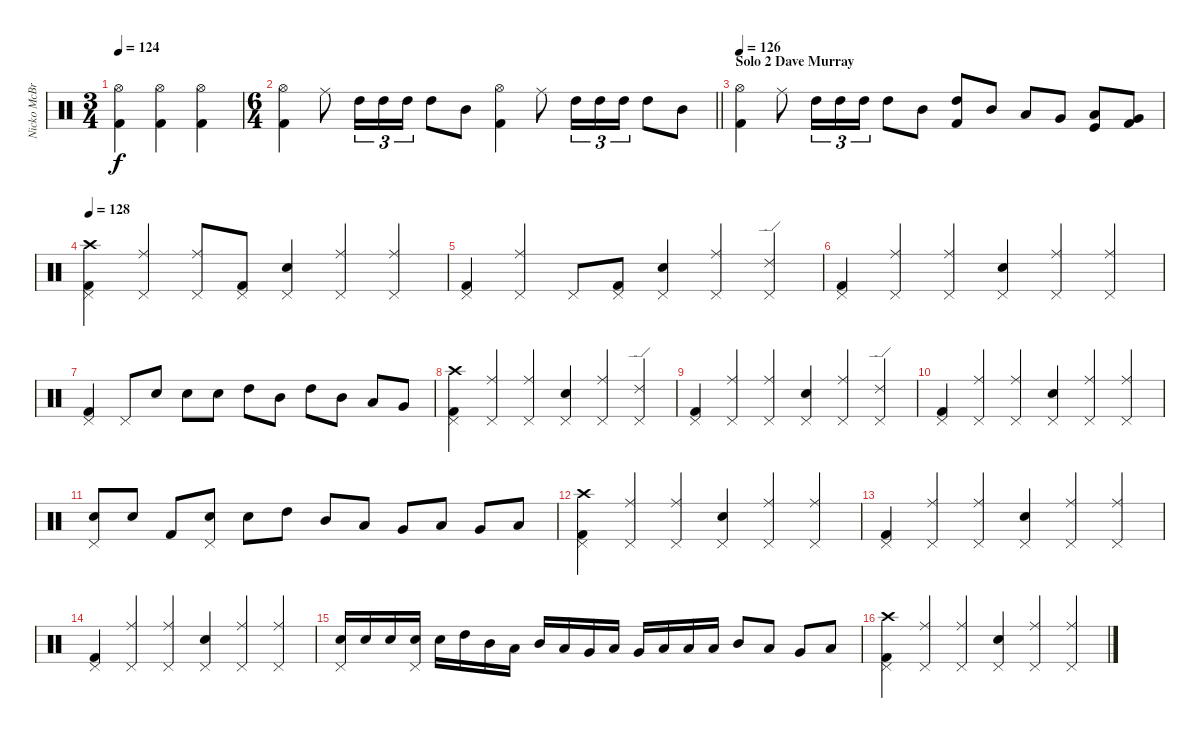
\track ("Nicko McBrain" "Nicko McBr") {instrument percussion}
\staff {score}
\articulation defaults
\ts (3 4)
\tempo 124
\clef neutral
\ks c
("Kick (hit) 2" "Hi-Hat (open)").4{dy f} ("Kick (hit) 2" "Hi-Hat (open)").4 ("Kick (hit) 2" "Hi-Hat (open)").4 |
\ts (6 4)
\barLineRight lightlight
("Kick (hit) 2" "Hi-Hat (open)").4 "Ride (middle)".8 "High Tom (hit)".16{tu (3 2)} "High Tom (hit)".16{tu (3 2)} "High Tom (hit)".16{tu (3 2)} "High Tom (hit)".8 "Mid Tom (hit)".8 ("Kick (hit) 2" "Hi-Hat (open)").4 "Ride (middle)".8 "High Tom (hit)".16{tu (3 2)} "High Tom (hit)".16{tu (3 2)} "High Tom (hit)".16{tu (3 2)} "High Tom (hit)".8 "Mid Tom (hit)".8 |
\section ("" "Solo 2 Dave Murray")
\tempo 126
("Kick (hit) 2" "Hi-Hat (open)").4 "Ride (middle)".8 "High Tom (hit)".16{tu (3 2)} "High Tom (hit)".16{tu (3 2)} "High Tom (hit)".16{tu (3 2)} "High Tom (hit)".8 "Mid Tom (hit)".8 ("High Tom (hit)" "Kick (hit) 2").8 "Mid Tom (hit)".8 "Low Tom (hit)".8 "Very Low Tom (hit)".8 ("Low Floor Tom (hit)" "Kick (hit)").8 ("Very Low Tom (hit)" "Kick (hit) 2").8 |
\tempo 128
("Kick (hit) 2" "Pedal Hi-Hat (hit)" "Crash high (hit)").4 ("Pedal Hi-Hat (hit)" "Ride (middle)").4 ("Pedal Hi-Hat (hit)" "Ride (middle)").8 ("Kick (hit) 2" "Pedal Hi-Hat (hit)").8 ("Snare (hit) 2" "Pedal Hi-Hat (hit)").4 ("Pedal Hi-Hat (hit)" "Ride (middle)").4 ("Pedal Hi-Hat (hit)" "Ride (middle)").4 |
("Kick (hit) 2" "Pedal Hi-Hat (hit)").4 ("Pedal Hi-Hat (hit)" "Ride (middle)").4 "Pedal Hi-Hat (hit)".8 ("Kick (hit) 2" "Pedal Hi-Hat (hit)").8 ("Snare (hit) 2" "Pedal Hi-Hat (hit)").4 ("Pedal Hi-Hat (hit)" "Ride (middle)").4 ("Pedal Hi-Hat (hit)" "Ride (edge) 2").4 |
("Kick (hit) 2" "Pedal Hi-Hat (hit)").4 ("Pedal Hi-Hat (hit)" "Ride (middle)").4 ("Pedal Hi-Hat (hit)" "Ride (middle)").4 ("Snare (hit) 2" "Pedal Hi-Hat (hit)").4 ("Pedal Hi-Hat (hit)" "Ride (middle)").4 ("Pedal Hi-Hat (hit)" "Ride (middle)").4 |
("Kick (hit) 2" "Pedal Hi-Hat (hit)").4 "Pedal Hi-Hat (hit)".8 "Snare (hit) 2".8 "Snare (hit) 2".8 "Snare (hit) 2".8 "High Tom (hit)".8 "Mid Tom (hit)".8 "High Tom (hit)".8 "Mid Tom (hit)".8 "Low Tom (hit)".8 "Very Low Tom (hit)".8 |
("Kick (hit) 2" "Pedal Hi-Hat (hit)" "Crash high (hit)").4 ("Pedal Hi-Hat (hit)" "Ride (middle)").4 ("Pedal Hi-Hat (hit)" "Ride (middle)").4 ("Snare (hit) 2" "Pedal Hi-Hat (hit)").4 ("Pedal Hi-Hat (hit)" "Ride (middle)").4 ("Pedal Hi-Hat (hit)" "Ride (edge) 2").4 |
("Kick (hit) 2" "Pedal Hi-Hat (hit)").4 ("Pedal Hi-Hat (hit)" "Ride (middle)").4 ("Pedal Hi-Hat (hit)" "Ride (middle)").4 ("Snare (hit) 2" "Pedal Hi-Hat (hit)").4 ("Pedal Hi-Hat (hit)" "Ride (middle)").4 ("Pedal Hi-Hat (hit)" "Ride (edge) 2").4 |
("Kick (hit) 2" "Pedal Hi-Hat (hit)").4 ("Pedal Hi-Hat (hit)" "Ride (middle)").4 ("Pedal Hi-Hat (hit)" "Ride (middle)").4 ("Snare (hit) 2" "Pedal Hi-Hat (hit)").4 ("Pedal Hi-Hat (hit)" "Ride (middle)").4 ("Pedal Hi-Hat (hit)" "Ride (middle)").4 |
("Snare (hit) 2" "Pedal Hi-Hat (hit)").8 "Snare (hit) 2".8 "Kick (hit) 2".8 ("Snare (hit) 2" "Pedal Hi-Hat (hit)").8 "Snare (hit) 2".8 "High Tom (hit)".8 "Mid Tom (hit)".8 "Low Tom (hit)".8 "Very Low Tom (hit)".8 "Low Floor Tom (hit)".8 "Very Low Tom (hit)".8 "Low Floor Tom (hit)".8 |
("Kick (hit) 2" "Pedal Hi-Hat (hit)" "Crash high (hit)").4 ("Pedal Hi-Hat (hit)" "Ride (middle)").4 ("Pedal Hi-Hat (hit)" "Ride (middle)").4 ("Snare (hit) 2" "Pedal Hi-Hat (hit)").4 ("Pedal Hi-Hat (hit)" "Ride (middle)").4 ("Pedal Hi-Hat (hit)" "Ride (middle)").4 |
("Kick (hit) 2" "Pedal Hi-Hat (hit)").4 ("Pedal Hi-Hat (hit)" "Ride (middle)").4 ("Pedal Hi-Hat (hit)" "Ride (middle)").4 ("Snare (hit) 2" "Pedal Hi-Hat (hit)").4 ("Pedal Hi-Hat (hit)" "Ride (middle)").4 ("Pedal Hi-Hat (hit)" "Ride (middle)").4 |
("Kick (hit) 2" "Pedal Hi-Hat (hit)").4 ("Pedal Hi-Hat (hit)" "Ride (middle)").4 ("Pedal Hi-Hat (hit)" "Ride (middle)").4 ("Snare (hit) 2" "Pedal Hi-Hat (hit)").4 ("Pedal Hi-Hat (hit)" "Ride (middle)").4 ("Pedal Hi-Hat (hit)" "Ride (middle)").4 |
("Snare (hit) 2" "Pedal Hi-Hat (hit)").16 "Snare (hit) 2".16 "Snare (hit) 2".16 ("Snare (hit) 2" "Pedal Hi-Hat (hit)").16 "Snare (hit) 2".16 "High Tom (hit)".16 "Mid Tom (hit)".16 "Low Tom (hit)".16 "Mid Tom (hit)".16 "Low Tom (hit)".16 "Very Low Tom (hit)".16 "Low Floor Tom (hit)".16 "Very Low Tom (hit)".16 "Low Tom (hit)".16 "Low Floor Tom (hit)".16 "Low Tom (hit)".16 "Mid Tom (hit)".8 "Low Tom (hit)".8 "Very Low Tom (hit)".8 "Low Floor Tom (hit)".8 |
("Kick (hit) 2" "Pedal Hi-Hat (hit)" "Crash high (hit)").4 ("Pedal Hi-Hat (hit)" "Ride (middle)").4 ("Pedal Hi-Hat (hit)" "Ride (middle)").4 ("Snare (hit) 2" "Pedal Hi-Hat (hit)").4 ("Pedal Hi-Hat (hit)" "Ride (middle)").4 ("Pedal Hi-Hat (hit)" "Ride (middle)").4
